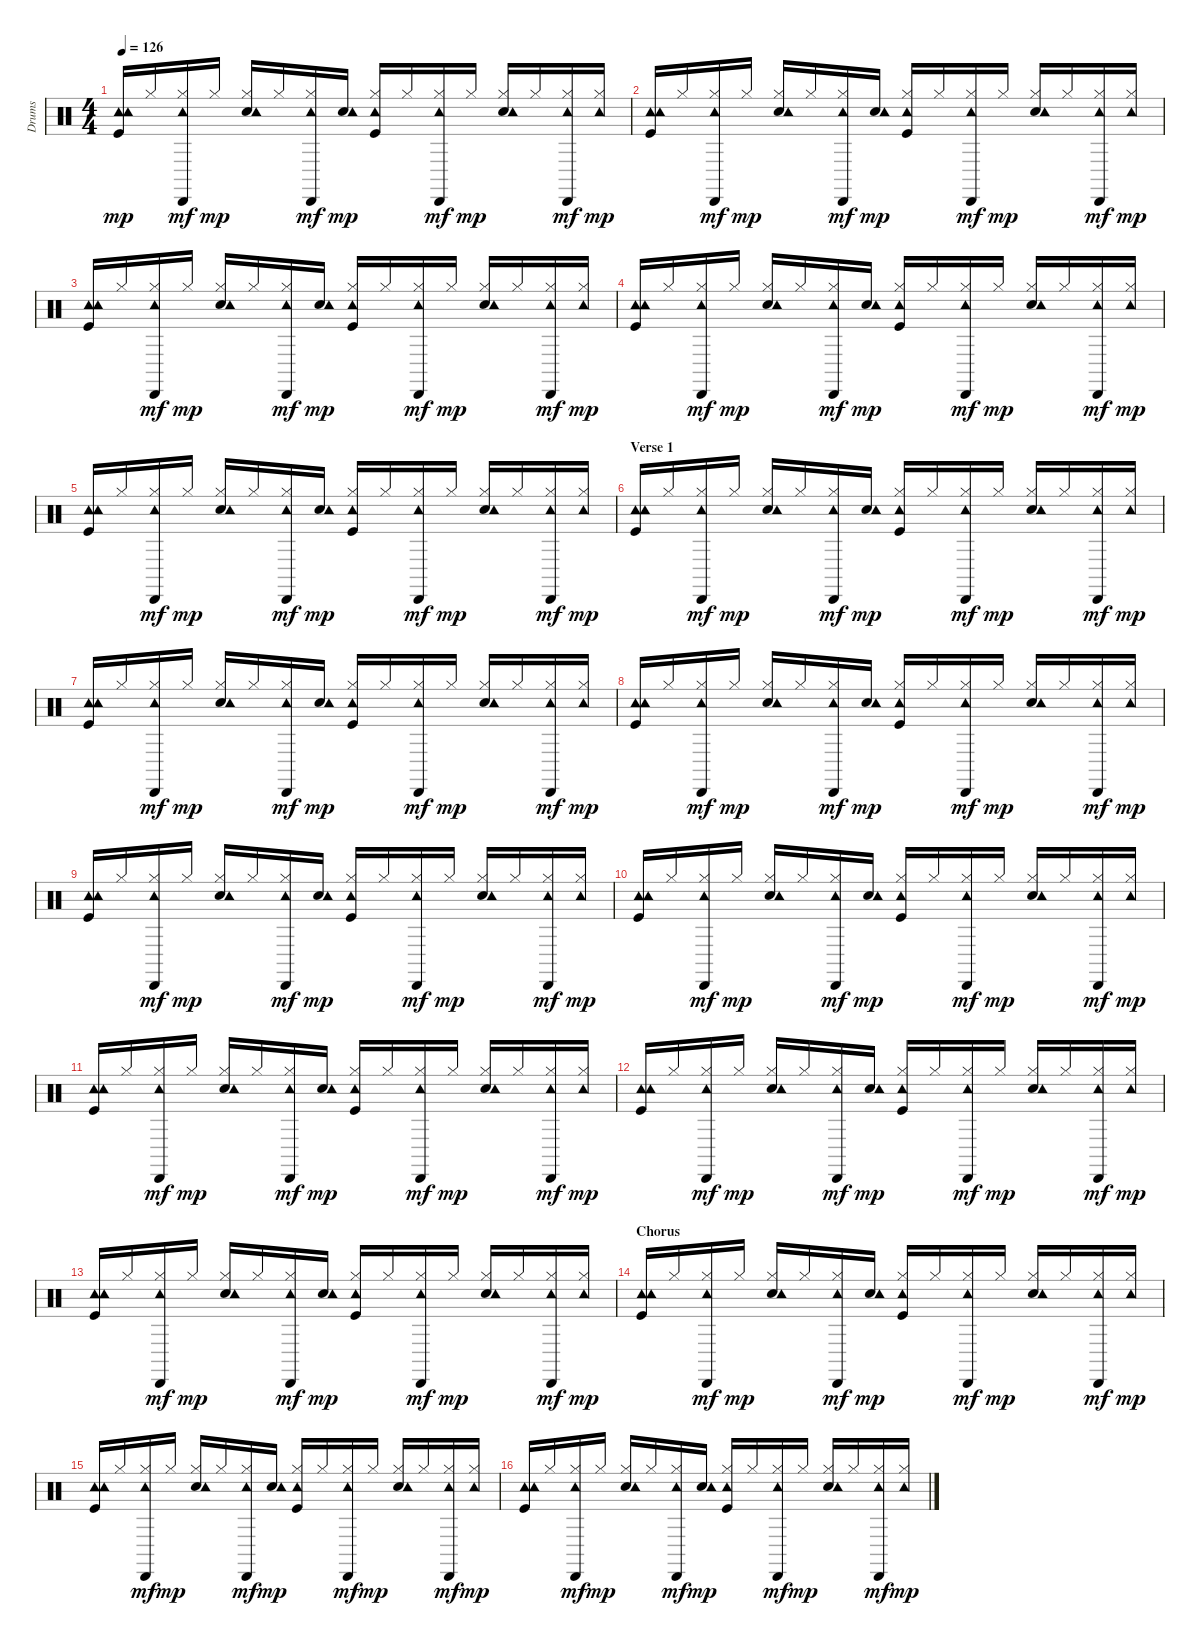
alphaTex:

\track ("Drums" "Drums") {instrument percussion}
\staff {score}
\articulation defaults
\ts (4 4)
\tempo 126
\clef neutral
\ks c
("Kick (hit)" "Tambourine (hit)" "Tambourine (hit)").16{dy mp} "Hi-Hat (closed)".16 ("Hi-Hat (closed)" "Tambourine (hit)" "Cabasa (hit)").16{dy mf} "Hi-Hat (closed)".16{dy mp} ("Snare (hit) 2" "Hi-Hat (closed)" "Tambourine (hit)").16 "Hi-Hat (closed)".16 ("Hi-Hat (closed)" "Tambourine (hit)" "Cabasa (hit)").16{dy mf} ("Snare (hit) 2" "Tambourine (hit)").16{dy mp} ("Kick (hit)" "Hi-Hat (closed)" "Tambourine (hit)").16 "Hi-Hat (closed)".16 ("Hi-Hat (closed)" "Tambourine (hit)" "Cabasa (hit)").16{dy mf} "Hi-Hat (closed)".16{dy mp} ("Snare (hit) 2" "Hi-Hat (closed)" "Tambourine (hit)").16 "Hi-Hat (closed)".16 ("Hi-Hat (closed)" "Tambourine (hit)" "Cabasa (hit)").16{dy mf} ("Hi-Hat (closed)" "Tambourine (hit)").16{dy mp} |
("Kick (hit)" "Tambourine (hit)" "Tambourine (hit)").16 "Hi-Hat (closed)".16 ("Hi-Hat (closed)" "Tambourine (hit)" "Cabasa (hit)").16{dy mf} "Hi-Hat (closed)".16{dy mp} ("Snare (hit) 2" "Hi-Hat (closed)" "Tambourine (hit)").16 "Hi-Hat (closed)".16 ("Hi-Hat (closed)" "Tambourine (hit)" "Cabasa (hit)").16{dy mf} ("Snare (hit) 2" "Tambourine (hit)").16{dy mp} ("Kick (hit)" "Hi-Hat (closed)" "Tambourine (hit)").16 "Hi-Hat (closed)".16 ("Hi-Hat (closed)" "Tambourine (hit)" "Cabasa (hit)").16{dy mf} "Hi-Hat (closed)".16{dy mp} ("Snare (hit) 2" "Hi-Hat (closed)" "Tambourine (hit)").16 "Hi-Hat (closed)".16 ("Hi-Hat (closed)" "Tambourine (hit)" "Cabasa (hit)").16{dy mf} ("Hi-Hat (closed)" "Tambourine (hit)").16{dy mp} |
("Kick (hit)" "Tambourine (hit)" "Tambourine (hit)").16 "Hi-Hat (closed)".16 ("Hi-Hat (closed)" "Tambourine (hit)" "Cabasa (hit)").16{dy mf} "Hi-Hat (closed)".16{dy mp} ("Snare (hit) 2" "Hi-Hat (closed)" "Tambourine (hit)").16 "Hi-Hat (closed)".16 ("Hi-Hat (closed)" "Tambourine (hit)" "Cabasa (hit)").16{dy mf} ("Snare (hit) 2" "Tambourine (hit)").16{dy mp} ("Kick (hit)" "Hi-Hat (closed)" "Tambourine (hit)").16 "Hi-Hat (closed)".16 ("Hi-Hat (closed)" "Tambourine (hit)" "Cabasa (hit)").16{dy mf} "Hi-Hat (closed)".16{dy mp} ("Snare (hit) 2" "Hi-Hat (closed)" "Tambourine (hit)").16 "Hi-Hat (closed)".16 ("Hi-Hat (closed)" "Tambourine (hit)" "Cabasa (hit)").16{dy mf} ("Hi-Hat (closed)" "Tambourine (hit)").16{dy mp} |
("Kick (hit)" "Tambourine (hit)" "Tambourine (hit)").16 "Hi-Hat (closed)".16 ("Hi-Hat (closed)" "Tambourine (hit)" "Cabasa (hit)").16{dy mf} "Hi-Hat (closed)".16{dy mp} ("Snare (hit) 2" "Hi-Hat (closed)" "Tambourine (hit)").16 "Hi-Hat (closed)".16 ("Hi-Hat (closed)" "Tambourine (hit)" "Cabasa (hit)").16{dy mf} ("Snare (hit) 2" "Tambourine (hit)").16{dy mp} ("Kick (hit)" "Hi-Hat (closed)" "Tambourine (hit)").16 "Hi-Hat (closed)".16 ("Hi-Hat (closed)" "Tambourine (hit)" "Cabasa (hit)").16{dy mf} "Hi-Hat (closed)".16{dy mp} ("Snare (hit) 2" "Hi-Hat (closed)" "Tambourine (hit)").16 "Hi-Hat (closed)".16 ("Hi-Hat (closed)" "Tambourine (hit)" "Cabasa (hit)").16{dy mf} ("Hi-Hat (closed)" "Tambourine (hit)").16{dy mp} |
("Kick (hit)" "Tambourine (hit)" "Tambourine (hit)").16 "Hi-Hat (closed)".16 ("Hi-Hat (closed)" "Tambourine (hit)" "Cabasa (hit)").16{dy mf} "Hi-Hat (closed)".16{dy mp} ("Snare (hit) 2" "Hi-Hat (closed)" "Tambourine (hit)").16 "Hi-Hat (closed)".16 ("Hi-Hat (closed)" "Tambourine (hit)" "Cabasa (hit)").16{dy mf} ("Snare (hit) 2" "Tambourine (hit)").16{dy mp} ("Kick (hit)" "Hi-Hat (closed)" "Tambourine (hit)").16 "Hi-Hat (closed)".16 ("Hi-Hat (closed)" "Tambourine (hit)" "Cabasa (hit)").16{dy mf} "Hi-Hat (closed)".16{dy mp} ("Snare (hit) 2" "Hi-Hat (closed)" "Tambourine (hit)").16 "Hi-Hat (closed)".16 ("Hi-Hat (closed)" "Tambourine (hit)" "Cabasa (hit)").16{dy mf} ("Hi-Hat (closed)" "Tambourine (hit)").16{dy mp} |
\section ("" "Verse 1")
("Kick (hit)" "Tambourine (hit)" "Tambourine (hit)").16 "Hi-Hat (closed)".16 ("Hi-Hat (closed)" "Tambourine (hit)" "Cabasa (hit)").16{dy mf} "Hi-Hat (closed)".16{dy mp} ("Snare (hit) 2" "Hi-Hat (closed)" "Tambourine (hit)").16 "Hi-Hat (closed)".16 ("Hi-Hat (closed)" "Tambourine (hit)" "Cabasa (hit)").16{dy mf} ("Snare (hit) 2" "Tambourine (hit)").16{dy mp} ("Kick (hit)" "Hi-Hat (closed)" "Tambourine (hit)").16 "Hi-Hat (closed)".16 ("Hi-Hat (closed)" "Tambourine (hit)" "Cabasa (hit)").16{dy mf} "Hi-Hat (closed)".16{dy mp} ("Snare (hit) 2" "Hi-Hat (closed)" "Tambourine (hit)").16 "Hi-Hat (closed)".16 ("Hi-Hat (closed)" "Tambourine (hit)" "Cabasa (hit)").16{dy mf} ("Hi-Hat (closed)" "Tambourine (hit)").16{dy mp} |
("Kick (hit)" "Tambourine (hit)" "Tambourine (hit)").16 "Hi-Hat (closed)".16 ("Hi-Hat (closed)" "Tambourine (hit)" "Cabasa (hit)").16{dy mf} "Hi-Hat (closed)".16{dy mp} ("Snare (hit) 2" "Hi-Hat (closed)" "Tambourine (hit)").16 "Hi-Hat (closed)".16 ("Hi-Hat (closed)" "Tambourine (hit)" "Cabasa (hit)").16{dy mf} ("Snare (hit) 2" "Tambourine (hit)").16{dy mp} ("Kick (hit)" "Hi-Hat (closed)" "Tambourine (hit)").16 "Hi-Hat (closed)".16 ("Hi-Hat (closed)" "Tambourine (hit)" "Cabasa (hit)").16{dy mf} "Hi-Hat (closed)".16{dy mp} ("Snare (hit) 2" "Hi-Hat (closed)" "Tambourine (hit)").16 "Hi-Hat (closed)".16 ("Hi-Hat (closed)" "Tambourine (hit)" "Cabasa (hit)").16{dy mf} ("Hi-Hat (closed)" "Tambourine (hit)").16{dy mp} |
("Kick (hit)" "Tambourine (hit)" "Tambourine (hit)").16 "Hi-Hat (closed)".16 ("Hi-Hat (closed)" "Tambourine (hit)" "Cabasa (hit)").16{dy mf} "Hi-Hat (closed)".16{dy mp} ("Snare (hit) 2" "Hi-Hat (closed)" "Tambourine (hit)").16 "Hi-Hat (closed)".16 ("Hi-Hat (closed)" "Tambourine (hit)" "Cabasa (hit)").16{dy mf} ("Snare (hit) 2" "Tambourine (hit)").16{dy mp} ("Kick (hit)" "Hi-Hat (closed)" "Tambourine (hit)").16 "Hi-Hat (closed)".16 ("Hi-Hat (closed)" "Tambourine (hit)" "Cabasa (hit)").16{dy mf} "Hi-Hat (closed)".16{dy mp} ("Snare (hit) 2" "Hi-Hat (closed)" "Tambourine (hit)").16 "Hi-Hat (closed)".16 ("Hi-Hat (closed)" "Tambourine (hit)" "Cabasa (hit)").16{dy mf} ("Hi-Hat (closed)" "Tambourine (hit)").16{dy mp} |
("Kick (hit)" "Tambourine (hit)" "Tambourine (hit)").16 "Hi-Hat (closed)".16 ("Hi-Hat (closed)" "Tambourine (hit)" "Cabasa (hit)").16{dy mf} "Hi-Hat (closed)".16{dy mp} ("Snare (hit) 2" "Hi-Hat (closed)" "Tambourine (hit)").16 "Hi-Hat (closed)".16 ("Hi-Hat (closed)" "Tambourine (hit)" "Cabasa (hit)").16{dy mf} ("Snare (hit) 2" "Tambourine (hit)").16{dy mp} ("Kick (hit)" "Hi-Hat (closed)" "Tambourine (hit)").16 "Hi-Hat (closed)".16 ("Hi-Hat (closed)" "Tambourine (hit)" "Cabasa (hit)").16{dy mf} "Hi-Hat (closed)".16{dy mp} ("Snare (hit) 2" "Hi-Hat (closed)" "Tambourine (hit)").16 "Hi-Hat (closed)".16 ("Hi-Hat (closed)" "Tambourine (hit)" "Cabasa (hit)").16{dy mf} ("Hi-Hat (closed)" "Tambourine (hit)").16{dy mp} |
("Kick (hit)" "Tambourine (hit)" "Tambourine (hit)").16 "Hi-Hat (closed)".16 ("Hi-Hat (closed)" "Tambourine (hit)" "Cabasa (hit)").16{dy mf} "Hi-Hat (closed)".16{dy mp} ("Snare (hit) 2" "Hi-Hat (closed)" "Tambourine (hit)").16 "Hi-Hat (closed)".16 ("Hi-Hat (closed)" "Tambourine (hit)" "Cabasa (hit)").16{dy mf} ("Snare (hit) 2" "Tambourine (hit)").16{dy mp} ("Kick (hit)" "Hi-Hat (closed)" "Tambourine (hit)").16 "Hi-Hat (closed)".16 ("Hi-Hat (closed)" "Tambourine (hit)" "Cabasa (hit)").16{dy mf} "Hi-Hat (closed)".16{dy mp} ("Snare (hit) 2" "Hi-Hat (closed)" "Tambourine (hit)").16 "Hi-Hat (closed)".16 ("Hi-Hat (closed)" "Tambourine (hit)" "Cabasa (hit)").16{dy mf} ("Hi-Hat (closed)" "Tambourine (hit)").16{dy mp} |
("Kick (hit)" "Tambourine (hit)" "Tambourine (hit)").16 "Hi-Hat (closed)".16 ("Hi-Hat (closed)" "Tambourine (hit)" "Cabasa (hit)").16{dy mf} "Hi-Hat (closed)".16{dy mp} ("Snare (hit) 2" "Hi-Hat (closed)" "Tambourine (hit)").16 "Hi-Hat (closed)".16 ("Hi-Hat (closed)" "Tambourine (hit)" "Cabasa (hit)").16{dy mf} ("Snare (hit) 2" "Tambourine (hit)").16{dy mp} ("Kick (hit)" "Hi-Hat (closed)" "Tambourine (hit)").16 "Hi-Hat (closed)".16 ("Hi-Hat (closed)" "Tambourine (hit)" "Cabasa (hit)").16{dy mf} "Hi-Hat (closed)".16{dy mp} ("Snare (hit) 2" "Hi-Hat (closed)" "Tambourine (hit)").16 "Hi-Hat (closed)".16 ("Hi-Hat (closed)" "Tambourine (hit)" "Cabasa (hit)").16{dy mf} ("Hi-Hat (closed)" "Tambourine (hit)").16{dy mp} |
("Kick (hit)" "Tambourine (hit)" "Tambourine (hit)").16 "Hi-Hat (closed)".16 ("Hi-Hat (closed)" "Tambourine (hit)" "Cabasa (hit)").16{dy mf} "Hi-Hat (closed)".16{dy mp} ("Snare (hit) 2" "Hi-Hat (closed)" "Tambourine (hit)").16 "Hi-Hat (closed)".16 ("Hi-Hat (closed)" "Tambourine (hit)" "Cabasa (hit)").16{dy mf} ("Snare (hit) 2" "Tambourine (hit)").16{dy mp} ("Kick (hit)" "Hi-Hat (closed)" "Tambourine (hit)").16 "Hi-Hat (closed)".16 ("Hi-Hat (closed)" "Tambourine (hit)" "Cabasa (hit)").16{dy mf} "Hi-Hat (closed)".16{dy mp} ("Snare (hit) 2" "Hi-Hat (closed)" "Tambourine (hit)").16 "Hi-Hat (closed)".16 ("Hi-Hat (closed)" "Tambourine (hit)" "Cabasa (hit)").16{dy mf} ("Hi-Hat (closed)" "Tambourine (hit)").16{dy mp} |
("Kick (hit)" "Tambourine (hit)" "Tambourine (hit)").16 "Hi-Hat (closed)".16 ("Hi-Hat (closed)" "Tambourine (hit)" "Cabasa (hit)").16{dy mf} "Hi-Hat (closed)".16{dy mp} ("Snare (hit) 2" "Hi-Hat (closed)" "Tambourine (hit)").16 "Hi-Hat (closed)".16 ("Hi-Hat (closed)" "Tambourine (hit)" "Cabasa (hit)").16{dy mf} ("Snare (hit) 2" "Tambourine (hit)").16{dy mp} ("Kick (hit)" "Hi-Hat (closed)" "Tambourine (hit)").16 "Hi-Hat (closed)".16 ("Hi-Hat (closed)" "Tambourine (hit)" "Cabasa (hit)").16{dy mf} "Hi-Hat (closed)".16{dy mp} ("Snare (hit) 2" "Hi-Hat (closed)" "Tambourine (hit)").16 "Hi-Hat (closed)".16 ("Hi-Hat (closed)" "Tambourine (hit)" "Cabasa (hit)").16{dy mf} ("Hi-Hat (closed)" "Tambourine (hit)").16{dy mp} |
\section ("" "Chorus")
("Kick (hit)" "Tambourine (hit)" "Tambourine (hit)").16 "Hi-Hat (closed)".16 ("Hi-Hat (closed)" "Tambourine (hit)" "Cabasa (hit)").16{dy mf} "Hi-Hat (closed)".16{dy mp} ("Snare (hit) 2" "Hi-Hat (closed)" "Tambourine (hit)").16 "Hi-Hat (closed)".16 ("Hi-Hat (closed)" "Tambourine (hit)" "Cabasa (hit)").16{dy mf} ("Snare (hit) 2" "Tambourine (hit)").16{dy mp} ("Kick (hit)" "Hi-Hat (closed)" "Tambourine (hit)").16 "Hi-Hat (closed)".16 ("Hi-Hat (closed)" "Tambourine (hit)" "Cabasa (hit)").16{dy mf} "Hi-Hat (closed)".16{dy mp} ("Snare (hit) 2" "Hi-Hat (closed)" "Tambourine (hit)").16 "Hi-Hat (closed)".16 ("Hi-Hat (closed)" "Tambourine (hit)" "Cabasa (hit)").16{dy mf} ("Hi-Hat (closed)" "Tambourine (hit)").16{dy mp} |
("Kick (hit)" "Tambourine (hit)" "Tambourine (hit)").16 "Hi-Hat (closed)".16 ("Hi-Hat (closed)" "Tambourine (hit)" "Cabasa (hit)").16{dy mf} "Hi-Hat (closed)".16{dy mp} ("Snare (hit) 2" "Hi-Hat (closed)" "Tambourine (hit)").16 "Hi-Hat (closed)".16 ("Hi-Hat (closed)" "Tambourine (hit)" "Cabasa (hit)").16{dy mf} ("Snare (hit) 2" "Tambourine (hit)").16{dy mp} ("Kick (hit)" "Hi-Hat (closed)" "Tambourine (hit)").16 "Hi-Hat (closed)".16 ("Hi-Hat (closed)" "Tambourine (hit)" "Cabasa (hit)").16{dy mf} "Hi-Hat (closed)".16{dy mp} ("Snare (hit) 2" "Hi-Hat (closed)" "Tambourine (hit)").16 "Hi-Hat (closed)".16 ("Hi-Hat (closed)" "Tambourine (hit)" "Cabasa (hit)").16{dy mf} ("Hi-Hat (closed)" "Tambourine (hit)").16{dy mp} |
("Kick (hit)" "Tambourine (hit)" "Tambourine (hit)").16 "Hi-Hat (closed)".16 ("Hi-Hat (closed)" "Tambourine (hit)" "Cabasa (hit)").16{dy mf} "Hi-Hat (closed)".16{dy mp} ("Snare (hit) 2" "Hi-Hat (closed)" "Tambourine (hit)").16 "Hi-Hat (closed)".16 ("Hi-Hat (closed)" "Tambourine (hit)" "Cabasa (hit)").16{dy mf} ("Snare (hit) 2" "Tambourine (hit)").16{dy mp} ("Kick (hit)" "Hi-Hat (closed)" "Tambourine (hit)").16 "Hi-Hat (closed)".16 ("Hi-Hat (closed)" "Tambourine (hit)" "Cabasa (hit)").16{dy mf} "Hi-Hat (closed)".16{dy mp} ("Snare (hit) 2" "Hi-Hat (closed)" "Tambourine (hit)").16 "Hi-Hat (closed)".16 ("Hi-Hat (closed)" "Tambourine (hit)" "Cabasa (hit)").16{dy mf} ("Hi-Hat (closed)" "Tambourine (hit)").16{dy mp}
